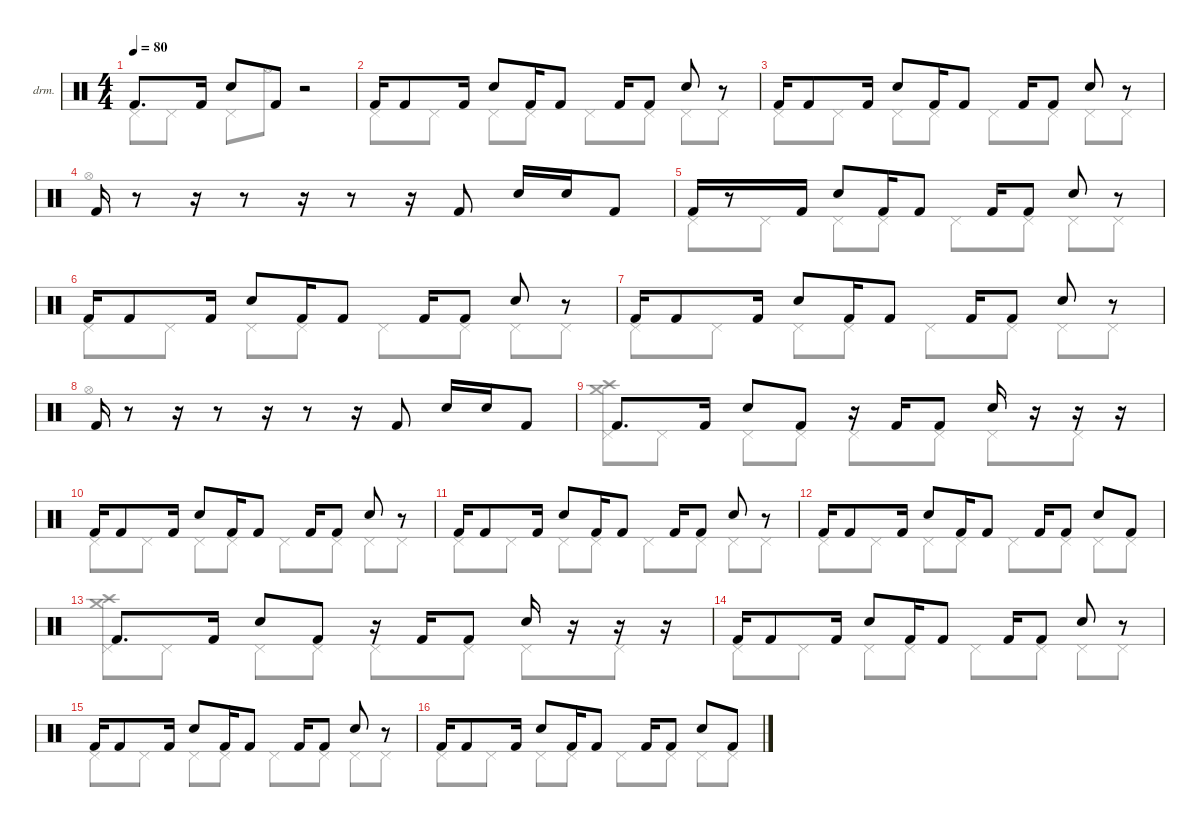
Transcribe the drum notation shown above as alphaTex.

\defaultSystemsLayout 4
\hideDynamics
\bracketExtendMode nobrackets
\firstSystemTrackNameOrientation horizontal
\otherSystemsTrackNameOrientation horizontal
\track ("Drumkit" "drm.") {instrument percussion}
\staff {score}
\articulation defaults
\voice
\ts (4 4)
\tempo 80
\clef neutral
\ks c "Kick (hit) 2".8{d dy mf beam Up} "Kick (hit) 2".16{beam Up} "Snare (hit) 2".8{beam Up} "Kick (hit) 2".8{beam Up}
r.2{beam Up} |
"Kick (hit) 2".16{beam Up} "Kick (hit) 2".8{beam Up} "Kick (hit) 2".16{beam Up} "Snare (hit) 2".8{beam Up} "Kick (hit) 2".16{beam Up} "Kick (hit) 2".8{beam Up} "Kick (hit) 2".16{beam Up} "Kick (hit) 2".8{beam Up} "Snare (hit) 2".8{beam Up} r.8{beam Up} |
"Kick (hit) 2".16{beam Up} "Kick (hit) 2".8{beam Up} "Kick (hit) 2".16{beam Up} "Snare (hit) 2".8{beam Up} "Kick (hit) 2".16{beam Up} "Kick (hit) 2".8{beam Up} "Kick (hit) 2".16{beam Up} "Kick (hit) 2".8{beam Up} "Snare (hit) 2".8{beam Up} r.8{beam Up} |
"Kick (hit) 2".16{beam Up} r.8{beam Up} r.16{beam Up} r.8{beam Up} r.16{beam Up} r.8{beam Up} r.16{beam Up} "Kick (hit) 2".8{beam Up} "Snare (hit) 2".16{beam Up} "Snare (hit) 2".16{beam Up} "Kick (hit) 2".8{beam Up} |
"Kick (hit) 2".16{beam Up} r.8{beam Up} "Kick (hit) 2".16{beam Up} "Snare (hit) 2".8{beam Up} "Kick (hit) 2".16{beam Up} "Kick (hit) 2".8{beam Up} "Kick (hit) 2".16{beam Up} "Kick (hit) 2".8{beam Up} "Snare (hit) 2".8{beam Up} r.8{beam Up} |
"Kick (hit) 2".16{beam Up} "Kick (hit) 2".8{beam Up} "Kick (hit) 2".16{beam Up} "Snare (hit) 2".8{beam Up} "Kick (hit) 2".16{beam Up} "Kick (hit) 2".8{beam Up} "Kick (hit) 2".16{beam Up} "Kick (hit) 2".8{beam Up} "Snare (hit) 2".8{beam Up} r.8{beam Up} |
"Kick (hit) 2".16{beam Up} "Kick (hit) 2".8{beam Up} "Kick (hit) 2".16{beam Up} "Snare (hit) 2".8{beam Up} "Kick (hit) 2".16{beam Up} "Kick (hit) 2".8{beam Up} "Kick (hit) 2".16{beam Up} "Kick (hit) 2".8{beam Up} "Snare (hit) 2".8{beam Up} r.8{beam Up} |
"Kick (hit) 2".16{beam Up} r.8{beam Up} r.16{beam Up} r.8{beam Up} r.16{beam Up} r.8{beam Up} r.16{beam Up} "Kick (hit) 2".8{beam Up} "Snare (hit) 2".16{beam Up} "Snare (hit) 2".16{beam Up} "Kick (hit) 2".8{beam Up} |
"Kick (hit) 2".8{d beam Up} "Kick (hit) 2".16{beam Up} "Snare (hit) 2".8{beam Up} "Kick (hit) 2".8{beam Up} r.16{beam Up} "Kick (hit) 2".16{beam Up} "Kick (hit) 2".8{beam Up} "Snare (hit) 2".16{beam Up} r.16{beam Up} r.16{beam Up} r.16{beam Up} |
"Kick (hit) 2".16{beam Up} "Kick (hit) 2".8{beam Up} "Kick (hit) 2".16{beam Up} "Snare (hit) 2".8{beam Up} "Kick (hit) 2".16{beam Up} "Kick (hit) 2".8{beam Up} "Kick (hit) 2".16{beam Up} "Kick (hit) 2".8{beam Up} "Snare (hit) 2".8{beam Up} r.8{beam Up} |
"Kick (hit) 2".16{beam Up} "Kick (hit) 2".8{beam Up} "Kick (hit) 2".16{beam Up} "Snare (hit) 2".8{beam Up} "Kick (hit) 2".16{beam Up} "Kick (hit) 2".8{beam Up} "Kick (hit) 2".16{beam Up} "Kick (hit) 2".8{beam Up} "Snare (hit) 2".8{beam Up} r.8{beam Up} |
"Kick (hit) 2".16{beam Up} "Kick (hit) 2".8{beam Up} "Kick (hit) 2".16{beam Up} "Snare (hit) 2".8{beam Up} "Kick (hit) 2".16{beam Up} "Kick (hit) 2".8{beam Up} "Kick (hit) 2".16{beam Up} "Kick (hit) 2".8{beam Up} "Snare (hit) 2".8{beam Up} "Kick (hit) 2".8{beam Up} |
"Kick (hit) 2".8{d beam Up} "Kick (hit) 2".16{beam Up} "Snare (hit) 2".8{beam Up} "Kick (hit) 2".8{beam Up} r.16{beam Up} "Kick (hit) 2".16{beam Up} "Kick (hit) 2".8{beam Up} "Snare (hit) 2".16{beam Up} r.16{beam Up} r.16{beam Up} r.16{beam Up} |
"Kick (hit) 2".16{beam Up} "Kick (hit) 2".8{beam Up} "Kick (hit) 2".16{beam Up} "Snare (hit) 2".8{beam Up} "Kick (hit) 2".16{beam Up} "Kick (hit) 2".8{beam Up} "Kick (hit) 2".16{beam Up} "Kick (hit) 2".8{beam Up} "Snare (hit) 2".8{beam Up} r.8{beam Up} |
"Kick (hit) 2".16{beam Up} "Kick (hit) 2".8{beam Up} "Kick (hit) 2".16{beam Up} "Snare (hit) 2".8{beam Up} "Kick (hit) 2".16{beam Up} "Kick (hit) 2".8{beam Up} "Kick (hit) 2".16{beam Up} "Kick (hit) 2".8{beam Up} "Snare (hit) 2".8{beam Up} r.8{beam Up} |
"Kick (hit) 2".16{beam Up} "Kick (hit) 2".8{beam Up} "Kick (hit) 2".16{beam Up} "Snare (hit) 2".8{beam Up} "Kick (hit) 2".16{beam Up} "Kick (hit) 2".8{beam Up} "Kick (hit) 2".16{beam Up} "Kick (hit) 2".8{beam Up} "Snare (hit) 2".8{beam Up} "Kick (hit) 2".8{beam Up}
\voice
\clef neutral
\ottava regular
\simile none
\ks c "Pedal Hi-Hat (hit)".8{dy mf beam Down} "Pedal Hi-Hat (hit)".8{beam Down} "Pedal Hi-Hat (hit)".8{beam Down} "Hi-Hat (open)".8{beam Down}
r.2{beam Down} |
"Pedal Hi-Hat (hit)".8{beam Down} "Pedal Hi-Hat (hit)".8{beam Down} "Pedal Hi-Hat (hit)".8{beam Down} "Pedal Hi-Hat (hit)".8{beam Down} "Pedal Hi-Hat (hit)".8{beam Down} "Pedal Hi-Hat (hit)".8{beam Down} "Pedal Hi-Hat (hit)".8{beam Down} "Pedal Hi-Hat (hit)".8{beam Down} |
"Pedal Hi-Hat (hit)".8{beam Down} "Pedal Hi-Hat (hit)".8{beam Down} "Pedal Hi-Hat (hit)".8{beam Down} "Pedal Hi-Hat (hit)".8{beam Down} "Pedal Hi-Hat (hit)".8{beam Down} "Pedal Hi-Hat (hit)".8{beam Down} "Pedal Hi-Hat (hit)".8{beam Down} "Pedal Hi-Hat (hit)".8{beam Down} |
"Hi-Hat (open)".1{beam Down} |
"Pedal Hi-Hat (hit)".8{beam Down} "Pedal Hi-Hat (hit)".8{beam Down} "Pedal Hi-Hat (hit)".8{beam Down} "Pedal Hi-Hat (hit)".8{beam Down} "Pedal Hi-Hat (hit)".8{beam Down} "Pedal Hi-Hat (hit)".8{beam Down} "Pedal Hi-Hat (hit)".8{beam Down} "Pedal Hi-Hat (hit)".8{beam Down} |
"Pedal Hi-Hat (hit)".8{beam Down} "Pedal Hi-Hat (hit)".8{beam Down} "Pedal Hi-Hat (hit)".8{beam Down} "Pedal Hi-Hat (hit)".8{beam Down} "Pedal Hi-Hat (hit)".8{beam Down} "Pedal Hi-Hat (hit)".8{beam Down} "Pedal Hi-Hat (hit)".8{beam Down} "Pedal Hi-Hat (hit)".8{beam Down} |
"Pedal Hi-Hat (hit)".8{beam Down} "Pedal Hi-Hat (hit)".8{beam Down} "Pedal Hi-Hat (hit)".8{beam Down} "Pedal Hi-Hat (hit)".8{beam Down} "Pedal Hi-Hat (hit)".8{beam Down} "Pedal Hi-Hat (hit)".8{beam Down} "Pedal Hi-Hat (hit)".8{beam Down} "Pedal Hi-Hat (hit)".8{beam Down} |
"Hi-Hat (open)".1{beam Down} |
("Pedal Hi-Hat (hit)" "Crash medium (hit)" "Crash high (hit)").8{beam Down} "Pedal Hi-Hat (hit)".8{beam Down} "Pedal Hi-Hat (hit)".8{beam Down} "Pedal Hi-Hat (hit)".8{beam Down} "Pedal Hi-Hat (hit)".8{beam Down} "Pedal Hi-Hat (hit)".8{beam Down} "Pedal Hi-Hat (hit)".8{beam Down} "Pedal Hi-Hat (hit)".8{beam Down} |
"Pedal Hi-Hat (hit)".8{beam Down} "Pedal Hi-Hat (hit)".8{beam Down} "Pedal Hi-Hat (hit)".8{beam Down} "Pedal Hi-Hat (hit)".8{beam Down} "Pedal Hi-Hat (hit)".8{beam Down} "Pedal Hi-Hat (hit)".8{beam Down} "Pedal Hi-Hat (hit)".8{beam Down} "Pedal Hi-Hat (hit)".8{beam Down} |
"Pedal Hi-Hat (hit)".8{beam Down} "Pedal Hi-Hat (hit)".8{beam Down} "Pedal Hi-Hat (hit)".8{beam Down} "Pedal Hi-Hat (hit)".8{beam Down} "Pedal Hi-Hat (hit)".8{beam Down} "Pedal Hi-Hat (hit)".8{beam Down} "Pedal Hi-Hat (hit)".8{beam Down} "Pedal Hi-Hat (hit)".8{beam Down} |
"Pedal Hi-Hat (hit)".8{beam Down} "Pedal Hi-Hat (hit)".8{beam Down} "Pedal Hi-Hat (hit)".8{beam Down} "Pedal Hi-Hat (hit)".8{beam Down} "Pedal Hi-Hat (hit)".8{beam Down} "Pedal Hi-Hat (hit)".8{beam Down} "Pedal Hi-Hat (hit)".8{beam Down} "Pedal Hi-Hat (hit)".8{beam Down} |
("Pedal Hi-Hat (hit)" "Crash medium (hit)" "Crash high (hit)").8{beam Down} "Pedal Hi-Hat (hit)".8{beam Down} "Pedal Hi-Hat (hit)".8{beam Down} "Pedal Hi-Hat (hit)".8{beam Down} "Pedal Hi-Hat (hit)".8{beam Down} "Pedal Hi-Hat (hit)".8{beam Down} "Pedal Hi-Hat (hit)".8{beam Down} "Pedal Hi-Hat (hit)".8{beam Down} |
"Pedal Hi-Hat (hit)".8{beam Down} "Pedal Hi-Hat (hit)".8{beam Down} "Pedal Hi-Hat (hit)".8{beam Down} "Pedal Hi-Hat (hit)".8{beam Down} "Pedal Hi-Hat (hit)".8{beam Down} "Pedal Hi-Hat (hit)".8{beam Down} "Pedal Hi-Hat (hit)".8{beam Down} "Pedal Hi-Hat (hit)".8{beam Down} |
"Pedal Hi-Hat (hit)".8{beam Down} "Pedal Hi-Hat (hit)".8{beam Down} "Pedal Hi-Hat (hit)".8{beam Down} "Pedal Hi-Hat (hit)".8{beam Down} "Pedal Hi-Hat (hit)".8{beam Down} "Pedal Hi-Hat (hit)".8{beam Down} "Pedal Hi-Hat (hit)".8{beam Down} "Pedal Hi-Hat (hit)".8{beam Down} |
"Pedal Hi-Hat (hit)".8{beam Down} "Pedal Hi-Hat (hit)".8{beam Down} "Pedal Hi-Hat (hit)".8{beam Down} "Pedal Hi-Hat (hit)".8{beam Down} "Pedal Hi-Hat (hit)".8{beam Down} "Pedal Hi-Hat (hit)".8{beam Down} "Pedal Hi-Hat (hit)".8{beam Down} "Pedal Hi-Hat (hit)".8{beam Down}
